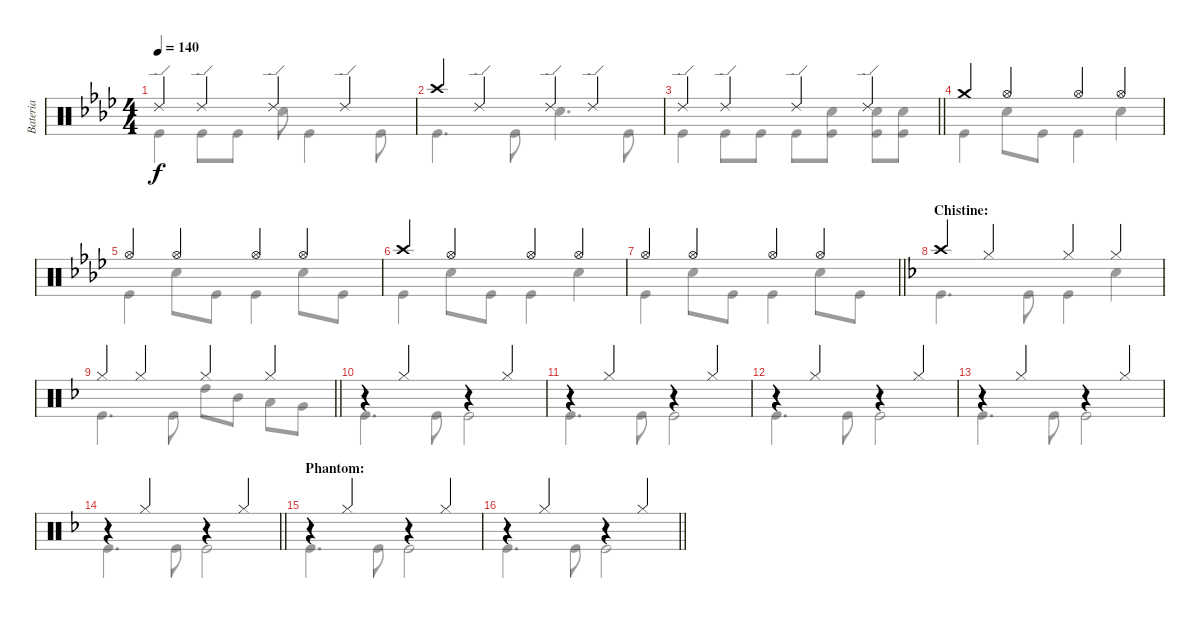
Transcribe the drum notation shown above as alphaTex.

\track ("Bateria" "Bateria") {instrument percussion}
\staff {score}
\articulation defaults
\voice
\ts (4 4)
\tempo 140
\clef neutral
\ks fminor "Ride (edge) 2".4{dy f} "Ride (edge) 2".4 "Ride (edge) 2".4 "Ride (edge) 2".4
|
"Crash high (hit)".4 "Ride (edge) 2".4 "Ride (edge) 2".4 "Ride (edge) 2".4 |
\barLineRight lightlight "Ride (edge) 2".4 "Ride (edge) 2".4 "Ride (edge) 2".4 "Ride (edge) 2".4
|
"Crash medium (hit)".4 "Hi-Hat (open)".4 "Hi-Hat (open)".4 "Hi-Hat (open)".4 |
"Hi-Hat (open)".4 "Hi-Hat (open)".4 "Hi-Hat (open)".4 "Hi-Hat (open)".4 |
"Crash high (hit)".4 "Hi-Hat (open)".4 "Hi-Hat (open)".4 "Hi-Hat (open)".4 |
\barLineRight lightlight "Hi-Hat (open)".4 "Hi-Hat (open)".4 "Hi-Hat (open)".4 "Hi-Hat (open)".4
|
\section ("" "Chistine:")
\ks dminor "Crash high (hit)".4 "Hi-Hat (closed)".4 "Hi-Hat (closed)".4 "Hi-Hat (closed)".4
|
\barLineRight lightlight "Hi-Hat (closed)".4 "Hi-Hat (closed)".4 "Hi-Hat (closed)".4 "Hi-Hat (closed)".4
|
r.4 "Hi-Hat (closed)".4 r.4 "Hi-Hat (closed)".4 |
r.4 "Hi-Hat (closed)".4 r.4 "Hi-Hat (closed)".4 |
r.4 "Hi-Hat (closed)".4 r.4 "Hi-Hat (closed)".4 |
r.4 "Hi-Hat (closed)".4 r.4 "Hi-Hat (closed)".4 |
\barLineRight lightlight
r.4 "Hi-Hat (closed)".4 r.4 "Hi-Hat (closed)".4 |
\section ("" "Phantom:")
r.4 "Hi-Hat (closed)".4 r.4 "Hi-Hat (closed)".4 |
\barLineRight lightlight
r.4 "Hi-Hat (closed)".4 r.4 "Hi-Hat (closed)".4
\voice
\clef neutral
\ottava regular
\simile none
\ks fminor "Kick (hit)".4{dy f} "Kick (hit)".8 "Kick (hit)".8 "Snare (hit) 2".8 "Kick (hit)".4 "Kick (hit)".8
|
"Kick (hit)".4{d} "Kick (hit)".8 "Snare (hit) 2".4{d} "Kick (hit)".8 |
\barLineRight lightlight "Kick (hit)".4 "Kick (hit)".8 "Kick (hit)".8 "Kick (hit)".8
("Snare (hit) 2" "Kick (hit)").8 ("Snare (hit) 2" "Kick (hit)").8 ("Snare (hit) 2" "Kick (hit)").8 |
"Kick (hit)".4 "Snare (hit) 2".8 "Kick (hit)".8 "Kick (hit)".4 "Snare (hit) 2".4 |
"Kick (hit)".4 "Snare (hit) 2".8 "Kick (hit)".8 "Kick (hit)".4 "Snare (hit) 2".8 "Kick (hit)".8 |
"Kick (hit)".4 "Snare (hit) 2".8 "Kick (hit)".8 "Kick (hit)".4 "Snare (hit) 2".4 |
\barLineRight lightlight "Kick (hit)".4 "Snare (hit) 2".8 "Kick (hit)".8 "Kick (hit)".4 "Snare (hit) 2".8 "Kick (hit)".8
|
\ks dminor "Kick (hit)".4{d} "Kick (hit)".8 "Kick (hit)".4 "Snare (hit) 2".4
|
\barLineRight lightlight "Kick (hit)".4{d} "Kick (hit)".8 "High Tom (hit)".8 "Mid Tom (hit)".8 "Low Tom (hit)".8 "Very Low Tom (hit)".8
|
"Kick (hit)".4{d} "Kick (hit)".8 "Kick (hit)".2 |
"Kick (hit)".4{d} "Kick (hit)".8 "Kick (hit)".2 |
"Kick (hit)".4{d} "Kick (hit)".8 "Kick (hit)".2 |
"Kick (hit)".4{d} "Kick (hit)".8 "Kick (hit)".2 |
\barLineRight lightlight "Kick (hit)".4{d} "Kick (hit)".8 "Kick (hit)".2
|
"Kick (hit)".4{d} "Kick (hit)".8 "Kick (hit)".2 |
\barLineRight lightlight "Kick (hit)".4{d} "Kick (hit)".8 "Kick (hit)".2
